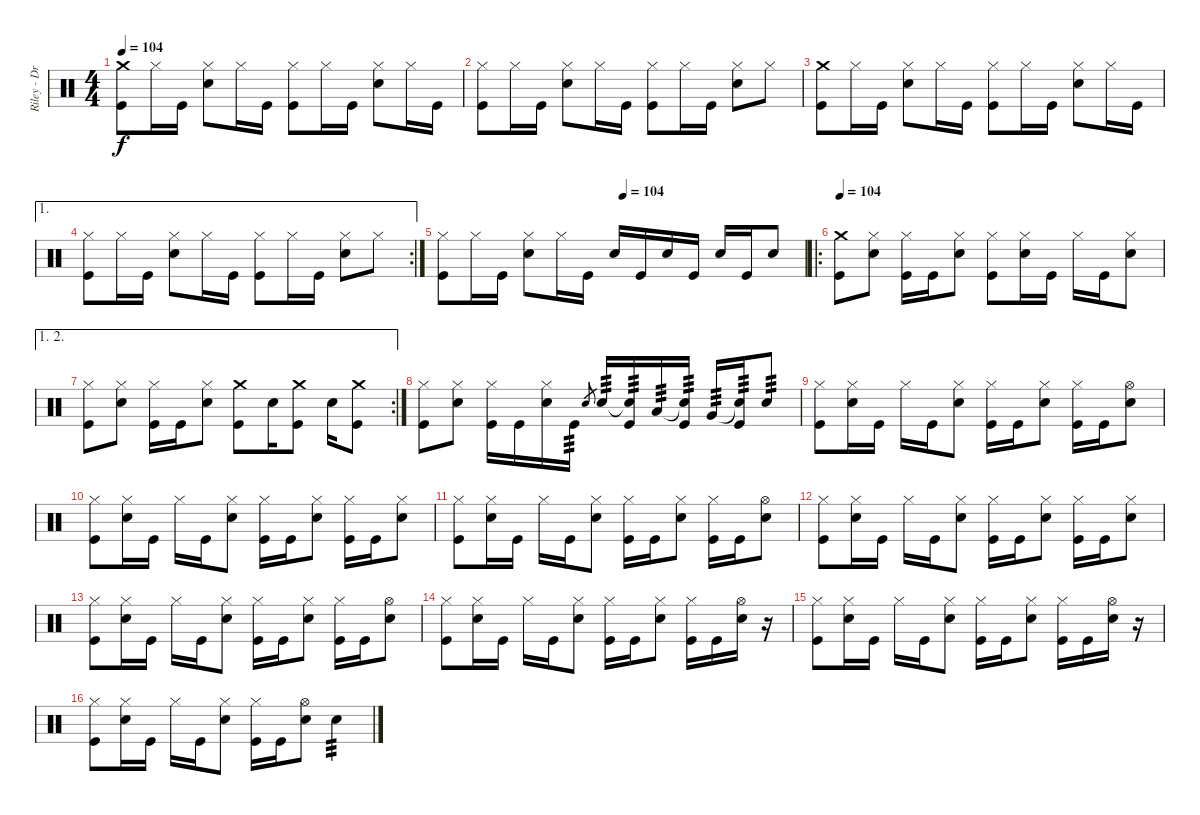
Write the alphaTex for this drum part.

\track ("Riley - Drums" "Riley - Dr") {instrument percussion}
\staff {score}
\articulation defaults
\ts (4 4)
\tempo 104
\tempo 98
\tempo 104
\clef neutral
\ks c
("Crash medium (hit)" "Kick (hit)").8{dy f} "Hi-Hat (closed)".16 "Kick (hit)".16 ("Hi-Hat (closed)" "Snare (hit) 2").8 "Hi-Hat (closed)".16 "Kick (hit)".16 ("Hi-Hat (closed)" "Kick (hit)").8 "Hi-Hat (closed)".16 "Kick (hit)".16 ("Hi-Hat (closed)" "Snare (hit) 2").8 "Hi-Hat (closed)".16 "Kick (hit)".16 |
("Hi-Hat (closed)" "Kick (hit)").8 "Hi-Hat (closed)".16 "Kick (hit)".16 ("Hi-Hat (closed)" "Snare (hit) 2").8 "Hi-Hat (closed)".16 "Kick (hit)".16 ("Hi-Hat (closed)" "Kick (hit)").8 "Hi-Hat (closed)".16 "Kick (hit)".16 ("Hi-Hat (closed)" "Snare (hit) 2").8 "Hi-Hat (closed)".8 |
("Crash medium (hit)" "Kick (hit)").8 "Hi-Hat (closed)".16 "Kick (hit)".16 ("Hi-Hat (closed)" "Snare (hit) 2").8 "Hi-Hat (closed)".16 "Kick (hit)".16 ("Hi-Hat (closed)" "Kick (hit)").8 "Hi-Hat (closed)".16 "Kick (hit)".16 ("Hi-Hat (closed)" "Snare (hit) 2").8 "Hi-Hat (closed)".16 "Kick (hit)".16 |
\ae 1
\rc 2
("Hi-Hat (closed)" "Kick (hit)").8 "Hi-Hat (closed)".16 "Kick (hit)".16 ("Hi-Hat (closed)" "Snare (hit) 2").8 "Hi-Hat (closed)".16 "Kick (hit)".16 ("Hi-Hat (closed)" "Kick (hit)").8 "Hi-Hat (closed)".16 "Kick (hit)".16 ("Hi-Hat (closed)" "Snare (hit) 2").8 "Hi-Hat (closed)".8 |
\tempo (104 0.5)
("Hi-Hat (closed)" "Kick (hit)").8 "Hi-Hat (closed)".16 "Kick (hit)".16 ("Hi-Hat (closed)" "Snare (hit) 2").8 "Hi-Hat (closed)".16 "Kick (hit)".16 "Snare (hit) 2".16 "Kick (hit)".16 "Snare (hit) 2".16 "Kick (hit)".16 "Snare (hit) 2".16 "Kick (hit)".16 "Snare (hit) 2".8 |
\ro
\tempo 104
("Crash medium (hit)" "Kick (hit)").8 ("Hi-Hat (closed)" "Snare (hit) 2").8 ("Hi-Hat (closed)" "Kick (hit)").16 "Kick (hit)".16 ("Hi-Hat (closed)" "Snare (hit) 2").8 ("Hi-Hat (closed)" "Kick (hit)").8 ("Hi-Hat (closed)" "Snare (hit) 2").16 "Kick (hit)".16 "Hi-Hat (closed)".16 "Kick (hit)".16 ("Hi-Hat (closed)" "Snare (hit) 2").8 |
\ae (1 2)
\rc 2
("Hi-Hat (closed)" "Kick (hit)").8 ("Hi-Hat (closed)" "Snare (hit) 2").8 ("Hi-Hat (closed)" "Kick (hit)").16 "Kick (hit)".16 ("Hi-Hat (closed)" "Snare (hit) 2").8 ("Crash medium (hit)" "Kick (hit)").8 "Snare (hit) 2".16 ("Crash medium (hit)" "Kick (hit)").8 "Snare (hit) 2".16 ("Crash medium (hit)" "Kick (hit)").8 |
("Hi-Hat (closed)" "Kick (hit)").8 ("Hi-Hat (closed)" "Snare (hit) 2").8 ("Hi-Hat (closed)" "Kick (hit)").16 "Kick (hit)".16 ("Hi-Hat (closed)" "Snare (hit) 2").16 "Kick (hit)".16{tp 3} "Snare (hit) 2".8{gr} "Snare (hit) 2".16{tp 3} ("Snare (hit)"{t} "Kick (hit)").16{tp 3} "Low Tom (hit)".16{tp 3} ("Snare (hit)"{t} "Kick (hit)").16{tp 3} "Very Low Tom (hit)".16{tp 3} ("Snare (hit)"{t} "Kick (hit)").16{tp 3} "Snare (hit) 2".8{tp 3} |
("Hi-Hat (closed)" "Kick (hit)").8 ("Hi-Hat (closed)" "Snare (hit) 2").16 "Kick (hit)".16 "Hi-Hat (closed)".16 "Kick (hit)".16 ("Hi-Hat (closed)" "Snare (hit) 2").8 ("Hi-Hat (closed)" "Kick (hit)").16 "Kick (hit)".16 ("Hi-Hat (closed)" "Snare (hit) 2").8 ("Hi-Hat (closed)" "Kick (hit)").16 "Kick (hit)".16 ("Hi-Hat (open)" "Snare (hit) 2").8 |
("Hi-Hat (closed)" "Kick (hit)").8 ("Hi-Hat (closed)" "Snare (hit) 2").16 "Kick (hit)".16 "Hi-Hat (closed)".16 "Kick (hit)".16 ("Hi-Hat (closed)" "Snare (hit) 2").8 ("Hi-Hat (closed)" "Kick (hit)").16 "Kick (hit)".16 ("Hi-Hat (closed)" "Snare (hit) 2").8 ("Hi-Hat (closed)" "Kick (hit)").16 "Kick (hit)".16 ("Hi-Hat (closed)" "Snare (hit) 2").8 |
("Hi-Hat (closed)" "Kick (hit)").8 ("Hi-Hat (closed)" "Snare (hit) 2").16 "Kick (hit)".16 "Hi-Hat (closed)".16 "Kick (hit)".16 ("Hi-Hat (closed)" "Snare (hit) 2").8 ("Hi-Hat (closed)" "Kick (hit)").16 "Kick (hit)".16 ("Hi-Hat (closed)" "Snare (hit) 2").8 ("Hi-Hat (closed)" "Kick (hit)").16 "Kick (hit)".16 ("Hi-Hat (open)" "Snare (hit) 2").8 |
("Hi-Hat (closed)" "Kick (hit)").8 ("Hi-Hat (closed)" "Snare (hit) 2").16 "Kick (hit)".16 "Hi-Hat (closed)".16 "Kick (hit)".16 ("Hi-Hat (closed)" "Snare (hit) 2").8 ("Hi-Hat (closed)" "Kick (hit)").16 "Kick (hit)".16 ("Hi-Hat (closed)" "Snare (hit) 2").8 ("Hi-Hat (closed)" "Kick (hit)").16 "Kick (hit)".16 ("Hi-Hat (closed)" "Snare (hit) 2").8 |
("Hi-Hat (closed)" "Kick (hit)").8 ("Hi-Hat (closed)" "Snare (hit) 2").16 "Kick (hit)".16 "Hi-Hat (closed)".16 "Kick (hit)".16 ("Hi-Hat (closed)" "Snare (hit) 2").8 ("Hi-Hat (closed)" "Kick (hit)").16 "Kick (hit)".16 ("Hi-Hat (closed)" "Snare (hit) 2").8 ("Hi-Hat (closed)" "Kick (hit)").16 "Kick (hit)".16 ("Hi-Hat (open)" "Snare (hit) 2").8 |
("Hi-Hat (closed)" "Kick (hit)").8 ("Hi-Hat (closed)" "Snare (hit) 2").16 "Kick (hit)".16 "Hi-Hat (closed)".16 "Kick (hit)".16 ("Hi-Hat (closed)" "Snare (hit) 2").8 ("Hi-Hat (closed)" "Kick (hit)").16 "Kick (hit)".16 ("Hi-Hat (closed)" "Snare (hit) 2").8 ("Hi-Hat (closed)" "Kick (hit)").16 "Kick (hit)".16 ("Hi-Hat (open)" "Snare (hit) 2").16 r.16 |
("Hi-Hat (closed)" "Kick (hit)").8 ("Hi-Hat (closed)" "Snare (hit) 2").16 "Kick (hit)".16 "Hi-Hat (closed)".16 "Kick (hit)".16 ("Hi-Hat (closed)" "Snare (hit) 2").8 ("Hi-Hat (closed)" "Kick (hit)").16 "Kick (hit)".16 ("Hi-Hat (closed)" "Snare (hit) 2").8 ("Hi-Hat (closed)" "Kick (hit)").16 "Kick (hit)".16 ("Hi-Hat (open)" "Snare (hit) 2").16 r.16 |
("Hi-Hat (closed)" "Kick (hit)").8 ("Hi-Hat (closed)" "Snare (hit) 2").16 "Kick (hit)".16 "Hi-Hat (closed)".16 "Kick (hit)".16 ("Hi-Hat (closed)" "Snare (hit) 2").8 ("Hi-Hat (closed)" "Kick (hit)").16 "Kick (hit)".16 ("Hi-Hat (open)" "Snare (hit) 2").8 "Snare (hit) 2".4{tp 3}
